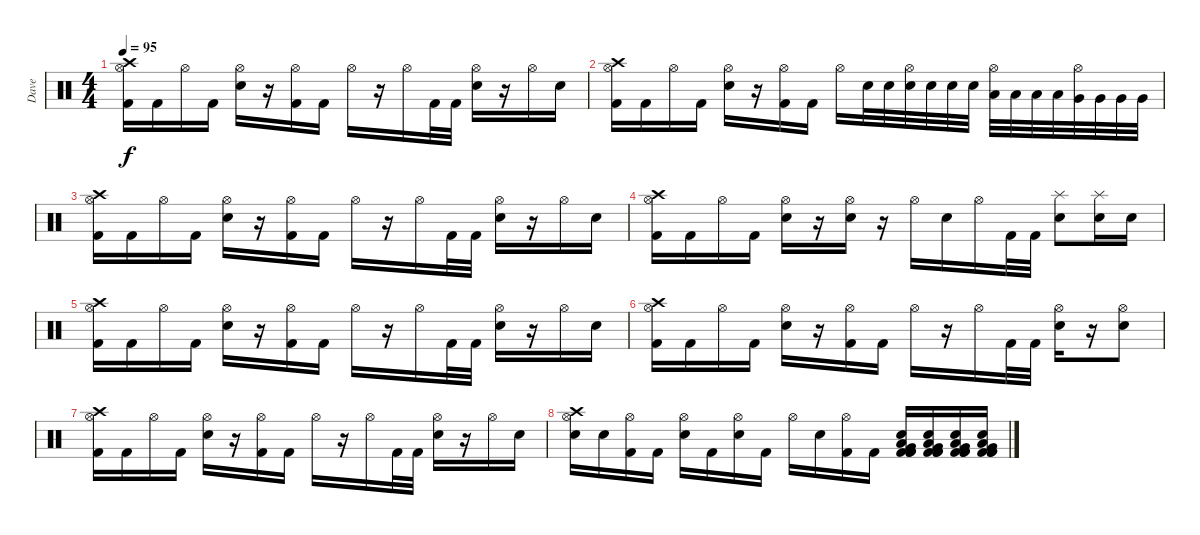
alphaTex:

\track ("Dave" "Dave") {instrument percussion}
\staff {score}
\articulation defaults
\ts (4 4)
\tempo 95
\clef neutral
\ks c
("Kick (hit) 2" "Hi-Hat (open)" "Crash high (hit)").16{dy f} "Kick (hit) 2".16 "Hi-Hat (open)".16 "Kick (hit) 2".16 ("Snare (hit) 2" "Hi-Hat (open)").16 r.16 ("Kick (hit) 2" "Hi-Hat (open)").16 "Kick (hit) 2".16 "Hi-Hat (open)".16 r.16 "Hi-Hat (open)".16 "Kick (hit) 2".32 "Kick (hit) 2".32 ("Snare (hit) 2" "Hi-Hat (open)").16 r.16 "Hi-Hat (open)".16 "Snare (hit) 2".16 |
("Kick (hit) 2" "Hi-Hat (open)" "Crash high (hit)").16 "Kick (hit) 2".16 "Hi-Hat (open)".16 "Kick (hit) 2".16 ("Snare (hit) 2" "Hi-Hat (open)").16 r.16 ("Kick (hit) 2" "Hi-Hat (open)").16 "Kick (hit) 2".16 "Hi-Hat (open)".16 "Snare (hit) 2".32 "Snare (hit) 2".32 ("Snare (hit) 2" "Hi-Hat (open)").32 "Snare (hit) 2".32 "Snare (hit) 2".32 "Snare (hit) 2".32 ("Low Tom (hit)" "Hi-Hat (open)").32 "Low Tom (hit)".32 "Low Tom (hit)".32 "Low Tom (hit)".32 ("Very Low Tom (hit)" "Hi-Hat (open)").32 "Very Low Tom (hit)".32 "Very Low Tom (hit)".32 "Very Low Tom (hit)".32 |
("Kick (hit) 2" "Hi-Hat (open)" "Crash high (hit)").16 "Kick (hit) 2".16 "Hi-Hat (open)".16 "Kick (hit) 2".16 ("Snare (hit) 2" "Hi-Hat (open)").16 r.16 ("Kick (hit) 2" "Hi-Hat (open)").16 "Kick (hit) 2".16 "Hi-Hat (open)".16 r.16 "Hi-Hat (open)".16 "Kick (hit) 2".32 "Kick (hit) 2".32 ("Snare (hit) 2" "Hi-Hat (open)").16 r.16 "Hi-Hat (open)".16 "Snare (hit) 2".16 |
("Kick (hit) 2" "Hi-Hat (open)" "Crash high (hit)").16 "Kick (hit) 2".16 "Hi-Hat (open)".16 "Kick (hit) 2".16 ("Snare (hit) 2" "Hi-Hat (open)").16 r.16 ("Snare (hit) 2" "Hi-Hat (open)").16 r.16 "Hi-Hat (open)".16 "Snare (hit) 2".16 "Hi-Hat (open)".16 "Kick (hit) 2".32 "Kick (hit) 2".32 ("Snare (hit) 2" "Splash (hit)").8 ("Snare (hit) 2" "Splash (hit)").16 "Snare (hit) 2".16 |
("Kick (hit) 2" "Hi-Hat (open)" "Crash high (hit)").16 "Kick (hit) 2".16 "Hi-Hat (open)".16 "Kick (hit) 2".16 ("Snare (hit) 2" "Hi-Hat (open)").16 r.16 ("Kick (hit) 2" "Hi-Hat (open)").16 "Kick (hit) 2".16 "Hi-Hat (open)".16 r.16 "Hi-Hat (open)".16 "Kick (hit) 2".32 "Kick (hit) 2".32 ("Snare (hit) 2" "Hi-Hat (open)").16 r.16 "Hi-Hat (open)".16 "Snare (hit) 2".16 |
("Kick (hit) 2" "Hi-Hat (open)" "Crash high (hit)").16 "Kick (hit) 2".16 "Hi-Hat (open)".16 "Kick (hit) 2".16 ("Snare (hit) 2" "Hi-Hat (open)").16 r.16 ("Kick (hit) 2" "Hi-Hat (open)").16 "Kick (hit) 2".16 "Hi-Hat (open)".16 r.16 "Hi-Hat (open)".16 "Kick (hit) 2".32 "Kick (hit) 2".32 ("Snare (hit) 2" "Hi-Hat (open)").16 r.16 ("Snare (hit) 2" "Hi-Hat (open)").8 |
("Kick (hit) 2" "Hi-Hat (open)" "Crash high (hit)").16 "Kick (hit) 2".16 "Hi-Hat (open)".16 "Kick (hit) 2".16 ("Snare (hit) 2" "Hi-Hat (open)").16 r.16 ("Kick (hit) 2" "Hi-Hat (open)").16 "Kick (hit) 2".16 "Hi-Hat (open)".16 r.16 "Hi-Hat (open)".16 "Kick (hit) 2".32 "Kick (hit) 2".32 ("Snare (hit) 2" "Hi-Hat (open)").16 r.16 "Hi-Hat (open)".16 "Snare (hit) 2".16 |
("Snare (hit) 2" "Hi-Hat (open)" "Crash high (hit)").16 "Snare (hit) 2".16 ("Kick (hit) 2" "Hi-Hat (open)").16 "Kick (hit) 2".16 ("Snare (hit) 2" "Hi-Hat (open)").16 "Kick (hit) 2".16 ("Snare (hit) 2" "Hi-Hat (open)").16 "Kick (hit) 2".16 "Hi-Hat (open)".16 "Snare (hit) 2".16 ("Kick (hit) 2" "Hi-Hat (open)").16 "Kick (hit) 2".16 ("Snare (hit) 2" "Kick (hit) 2" "Kick (hit) 2" "Kick (hit) 2" "Low Tom (hit)" "Very Low Tom (hit)").16 ("Snare (hit) 2" "Kick (hit) 2" "Kick (hit) 2" "Kick (hit) 2" "Low Tom (hit)" "Very Low Tom (hit)").16 ("Snare (hit) 2" "Kick (hit) 2" "Kick (hit) 2" "Kick (hit) 2" "Low Tom (hit)" "Very Low Tom (hit)").16 ("Snare (hit) 2" "Kick (hit) 2" "Kick (hit) 2" "Kick (hit) 2" "Low Tom (hit)" "Very Low Tom (hit)").16
